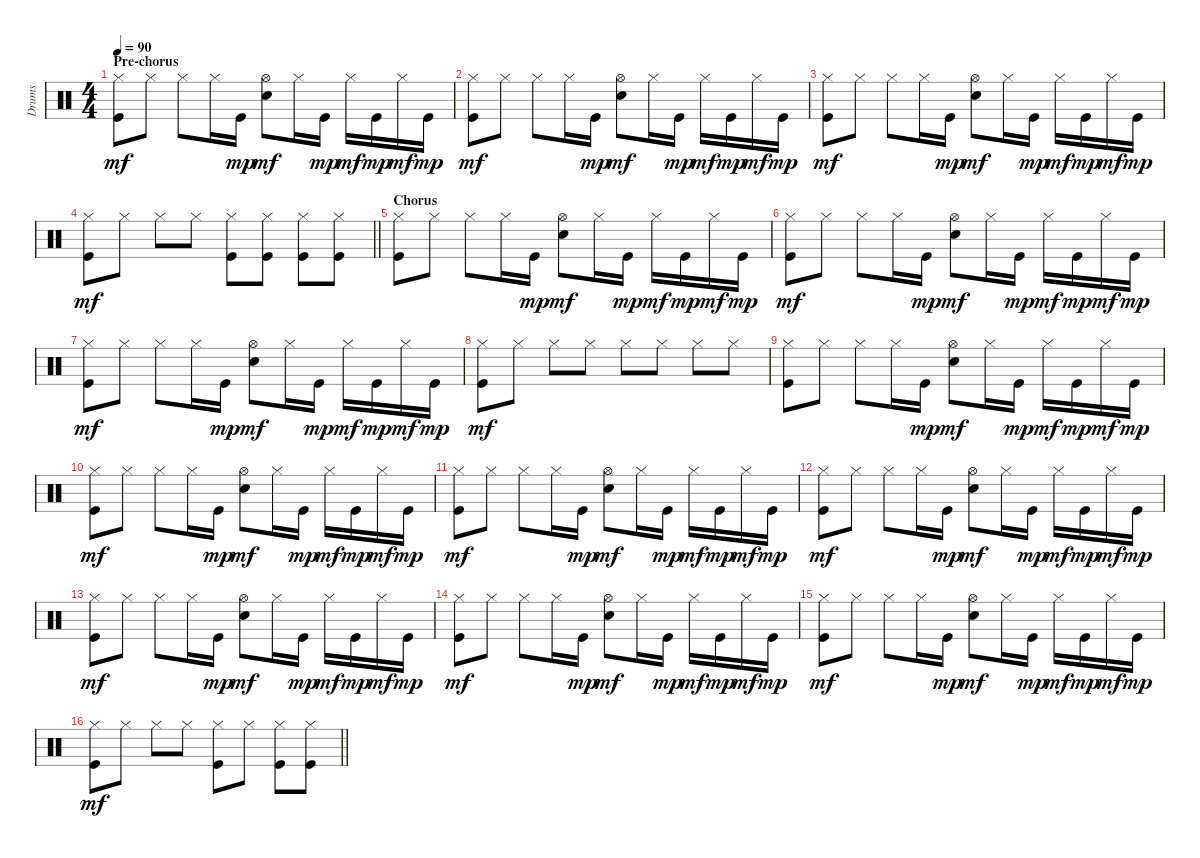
\track ("Drums" "Drums") {instrument percussion}
\staff {score}
\articulation defaults
\ts (4 4)
\section ("" "Pre-chorus")
\tempo 90
\clef neutral
\ks c
("Kick (hit)" "Hi-Hat (closed)").8{dy mf} "Hi-Hat (closed)".8 "Hi-Hat (closed)".8 "Hi-Hat (closed)".16 "Kick (hit)".16{dy mp} ("Electric Snare (hit)" "Hi-Hat (open)").8{dy mf} "Hi-Hat (closed)".16 "Kick (hit)".16{dy mp} "Hi-Hat (closed)".16{dy mf} "Kick (hit)".16{dy mp} "Hi-Hat (closed)".16{dy mf} "Kick (hit)".16{dy mp} |
("Kick (hit)" "Hi-Hat (closed)").8{dy mf} "Hi-Hat (closed)".8 "Hi-Hat (closed)".8 "Hi-Hat (closed)".16 "Kick (hit)".16{dy mp} ("Electric Snare (hit)" "Hi-Hat (open)").8{dy mf} "Hi-Hat (closed)".16 "Kick (hit)".16{dy mp} "Hi-Hat (closed)".16{dy mf} "Kick (hit)".16{dy mp} "Hi-Hat (closed)".16{dy mf} "Kick (hit)".16{dy mp} |
("Kick (hit)" "Hi-Hat (closed)").8{dy mf} "Hi-Hat (closed)".8 "Hi-Hat (closed)".8 "Hi-Hat (closed)".16 "Kick (hit)".16{dy mp} ("Electric Snare (hit)" "Hi-Hat (open)").8{dy mf} "Hi-Hat (closed)".16 "Kick (hit)".16{dy mp} "Hi-Hat (closed)".16{dy mf} "Kick (hit)".16{dy mp} "Hi-Hat (closed)".16{dy mf} "Kick (hit)".16{dy mp} |
\barLineRight lightlight
("Kick (hit)" "Hi-Hat (closed)").8{dy mf} "Hi-Hat (closed)".8 "Hi-Hat (closed)".8 "Hi-Hat (closed)".8 ("Kick (hit)" "Hi-Hat (closed)").8 ("Kick (hit)" "Hi-Hat (closed)").8 ("Kick (hit)" "Hi-Hat (closed)").8 ("Kick (hit)" "Hi-Hat (closed)").8 |
\section ("" "Chorus")
("Kick (hit)" "Hi-Hat (closed)").8 "Hi-Hat (closed)".8 "Hi-Hat (closed)".8 "Hi-Hat (closed)".16 "Kick (hit)".16{dy mp} ("Electric Snare (hit)" "Hi-Hat (open)").8{dy mf} "Hi-Hat (closed)".16 "Kick (hit)".16{dy mp} "Hi-Hat (closed)".16{dy mf} "Kick (hit)".16{dy mp} "Hi-Hat (closed)".16{dy mf} "Kick (hit)".16{dy mp} |
("Kick (hit)" "Hi-Hat (closed)").8{dy mf} "Hi-Hat (closed)".8 "Hi-Hat (closed)".8 "Hi-Hat (closed)".16 "Kick (hit)".16{dy mp} ("Electric Snare (hit)" "Hi-Hat (open)").8{dy mf} "Hi-Hat (closed)".16 "Kick (hit)".16{dy mp} "Hi-Hat (closed)".16{dy mf} "Kick (hit)".16{dy mp} "Hi-Hat (closed)".16{dy mf} "Kick (hit)".16{dy mp} |
("Kick (hit)" "Hi-Hat (closed)").8{dy mf} "Hi-Hat (closed)".8 "Hi-Hat (closed)".8 "Hi-Hat (closed)".16 "Kick (hit)".16{dy mp} ("Electric Snare (hit)" "Hi-Hat (open)").8{dy mf} "Hi-Hat (closed)".16 "Kick (hit)".16{dy mp} "Hi-Hat (closed)".16{dy mf} "Kick (hit)".16{dy mp} "Hi-Hat (closed)".16{dy mf} "Kick (hit)".16{dy mp} |
("Kick (hit)" "Hi-Hat (closed)").8{dy mf} "Hi-Hat (closed)".8 "Hi-Hat (closed)".8 "Hi-Hat (closed)".8 "Hi-Hat (closed)".8 "Hi-Hat (closed)".8 "Hi-Hat (closed)".8 "Hi-Hat (closed)".8 |
("Kick (hit)" "Hi-Hat (closed)").8 "Hi-Hat (closed)".8 "Hi-Hat (closed)".8 "Hi-Hat (closed)".16 "Kick (hit)".16{dy mp} ("Electric Snare (hit)" "Hi-Hat (open)").8{dy mf} "Hi-Hat (closed)".16 "Kick (hit)".16{dy mp} "Hi-Hat (closed)".16{dy mf} "Kick (hit)".16{dy mp} "Hi-Hat (closed)".16{dy mf} "Kick (hit)".16{dy mp} |
("Kick (hit)" "Hi-Hat (closed)").8{dy mf} "Hi-Hat (closed)".8 "Hi-Hat (closed)".8 "Hi-Hat (closed)".16 "Kick (hit)".16{dy mp} ("Electric Snare (hit)" "Hi-Hat (open)").8{dy mf} "Hi-Hat (closed)".16 "Kick (hit)".16{dy mp} "Hi-Hat (closed)".16{dy mf} "Kick (hit)".16{dy mp} "Hi-Hat (closed)".16{dy mf} "Kick (hit)".16{dy mp} |
("Kick (hit)" "Hi-Hat (closed)").8{dy mf} "Hi-Hat (closed)".8 "Hi-Hat (closed)".8 "Hi-Hat (closed)".16 "Kick (hit)".16{dy mp} ("Electric Snare (hit)" "Hi-Hat (open)").8{dy mf} "Hi-Hat (closed)".16 "Kick (hit)".16{dy mp} "Hi-Hat (closed)".16{dy mf} "Kick (hit)".16{dy mp} "Hi-Hat (closed)".16{dy mf} "Kick (hit)".16{dy mp} |
("Kick (hit)" "Hi-Hat (closed)").8{dy mf} "Hi-Hat (closed)".8 "Hi-Hat (closed)".8 "Hi-Hat (closed)".16 "Kick (hit)".16{dy mp} ("Electric Snare (hit)" "Hi-Hat (open)").8{dy mf} "Hi-Hat (closed)".16 "Kick (hit)".16{dy mp} "Hi-Hat (closed)".16{dy mf} "Kick (hit)".16{dy mp} "Hi-Hat (closed)".16{dy mf} "Kick (hit)".16{dy mp} |
("Kick (hit)" "Hi-Hat (closed)").8{dy mf} "Hi-Hat (closed)".8 "Hi-Hat (closed)".8 "Hi-Hat (closed)".16 "Kick (hit)".16{dy mp} ("Electric Snare (hit)" "Hi-Hat (open)").8{dy mf} "Hi-Hat (closed)".16 "Kick (hit)".16{dy mp} "Hi-Hat (closed)".16{dy mf} "Kick (hit)".16{dy mp} "Hi-Hat (closed)".16{dy mf} "Kick (hit)".16{dy mp} |
("Kick (hit)" "Hi-Hat (closed)").8{dy mf} "Hi-Hat (closed)".8 "Hi-Hat (closed)".8 "Hi-Hat (closed)".16 "Kick (hit)".16{dy mp} ("Electric Snare (hit)" "Hi-Hat (open)").8{dy mf} "Hi-Hat (closed)".16 "Kick (hit)".16{dy mp} "Hi-Hat (closed)".16{dy mf} "Kick (hit)".16{dy mp} "Hi-Hat (closed)".16{dy mf} "Kick (hit)".16{dy mp} |
("Kick (hit)" "Hi-Hat (closed)").8{dy mf} "Hi-Hat (closed)".8 "Hi-Hat (closed)".8 "Hi-Hat (closed)".16 "Kick (hit)".16{dy mp} ("Electric Snare (hit)" "Hi-Hat (open)").8{dy mf} "Hi-Hat (closed)".16 "Kick (hit)".16{dy mp} "Hi-Hat (closed)".16{dy mf} "Kick (hit)".16{dy mp} "Hi-Hat (closed)".16{dy mf} "Kick (hit)".16{dy mp} |
\barLineRight lightlight
("Kick (hit)" "Hi-Hat (closed)").8{dy mf} "Hi-Hat (closed)".8 "Hi-Hat (closed)".8 "Hi-Hat (closed)".8 ("Kick (hit)" "Hi-Hat (closed)").8 "Hi-Hat (closed)".8 ("Kick (hit)" "Hi-Hat (closed)").8 ("Kick (hit)" "Hi-Hat (closed)").8
